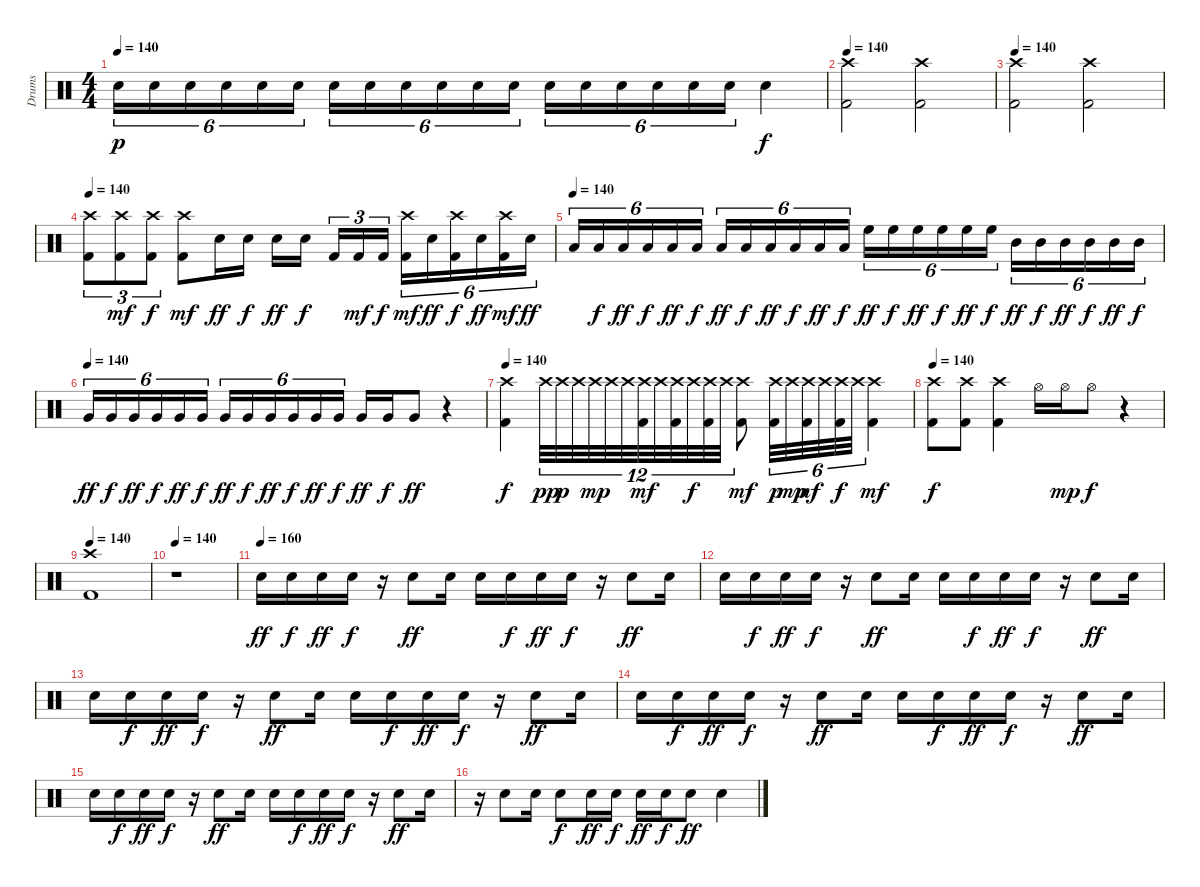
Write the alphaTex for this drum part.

\track ("Drums" "Drums") {instrument percussion}
\staff {score}
\articulation defaults
\ts (4 4)
\tempo 140
\clef neutral
\ks c "Snare (hit) 2".16{tu (6 4) dy p} "Snare (hit) 2".16{tu (6 4)} "Snare (hit) 2".16{tu (6 4)} "Snare (hit) 2".16{tu (6 4)} "Snare (hit) 2".16{tu (6 4)} "Snare (hit) 2".16{tu (6 4)} "Snare (hit) 2".16{tu (6 4)} "Snare (hit) 2".16{tu (6 4)} "Snare (hit) 2".16{tu (6 4)} "Snare (hit) 2".16{tu (6 4)} "Snare (hit) 2".16{tu (6 4)} "Snare (hit) 2".16{tu (6 4)} "Snare (hit) 2".16{tu (6 4)} "Snare (hit) 2".16{tu (6 4)} "Snare (hit) 2".16{tu (6 4)} "Snare (hit) 2".16{tu (6 4)} "Snare (hit) 2".16{tu (6 4)} "Snare (hit) 2".16{tu (6 4)} "Snare (hit) 2".4{dy f}
|
\tempo 140
("Crash high (hit)" "Kick (hit) 2").2 ("Crash high (hit)" "Kick (hit) 2").2 |
\tempo 140
("Crash high (hit)" "Kick (hit) 2").2 ("Crash high (hit)" "Kick (hit) 2").2 |
\tempo 140
("Crash high (hit)" "Kick (hit) 2").8{tu (3 2)} ("Crash high (hit)" "Kick (hit) 2").8{tu (3 2) dy mf} ("Crash high (hit)" "Kick (hit) 2").8{tu (3 2) dy f} ("Crash high (hit)" "Kick (hit) 2").8{dy mf} "Snare (hit) 2".16{dy ff} "Snare (hit) 2".16{dy f} "Snare (hit) 2".16{dy ff} "Snare (hit) 2".16{dy f} "Kick (hit) 2".16{tu (3 2)} "Kick (hit) 2".16{tu (3 2) dy mf} "Kick (hit) 2".16{tu (3 2) dy f} ("Crash high (hit)" "Kick (hit) 2").16{tu (6 4) dy mf} "Snare (hit) 2".16{tu (6 4) dy ff} ("Crash high (hit)" "Kick (hit) 2").16{tu (6 4) dy f} "Snare (hit) 2".16{tu (6 4) dy ff} ("Crash high (hit)" "Kick (hit) 2").16{tu (6 4) dy mf} "Snare (hit) 2".16{tu (6 4) dy ff} |
\tempo (140)
"Low Tom (hit)".16{tu (6 4)} "Low Tom (hit)".16{tu (6 4) dy f} "Low Tom (hit)".16{tu (6 4) dy ff} "Low Tom (hit)".16{tu (6 4) dy f} "Low Tom (hit)".16{tu (6 4) dy ff} "Low Tom (hit)".16{tu (6 4) dy f} "Low Tom (hit)".16{tu (6 4) dy ff} "Low Tom (hit)".16{tu (6 4) dy f} "Low Tom (hit)".16{tu (6 4) dy ff} "Low Tom (hit)".16{tu (6 4) dy f} "Low Tom (hit)".16{tu (6 4) dy ff} "Low Tom (hit)".16{tu (6 4) dy f} "High Floor Tom (hit)".16{tu (6 4) dy ff} "High Floor Tom (hit)".16{tu (6 4) dy f} "High Floor Tom (hit)".16{tu (6 4) dy ff} "High Floor Tom (hit)".16{tu (6 4) dy f} "High Floor Tom (hit)".16{tu (6 4) dy ff} "High Floor Tom (hit)".16{tu (6 4) dy f} "Mid Tom (hit)".16{tu (6 4) dy ff} "Mid Tom (hit)".16{tu (6 4) dy f} "Mid Tom (hit)".16{tu (6 4) dy ff} "Mid Tom (hit)".16{tu (6 4) dy f} "Mid Tom (hit)".16{tu (6 4) dy ff} "Mid Tom (hit)".16{tu (6 4) dy f} |
\tempo (140)
"Very Low Tom (hit)".16{tu (6 4) dy ff} "Very Low Tom (hit)".16{tu (6 4) dy f} "Very Low Tom (hit)".16{tu (6 4) dy ff} "Very Low Tom (hit)".16{tu (6 4) dy f} "Very Low Tom (hit)".16{tu (6 4) dy ff} "Very Low Tom (hit)".16{tu (6 4) dy f} "Very Low Tom (hit)".16{tu (6 4) dy ff} "Very Low Tom (hit)".16{tu (6 4) dy f} "Very Low Tom (hit)".16{tu (6 4) dy ff} "Very Low Tom (hit)".16{tu (6 4) dy f} "Very Low Tom (hit)".16{tu (6 4) dy ff} "Very Low Tom (hit)".16{tu (6 4) dy f} "Very Low Tom (hit)".16{dy ff} "Very Low Tom (hit)".16{dy f} "Very Low Tom (hit)".8{dy ff} r.4 |
\tempo 140
("Crash high (hit)" "Kick (hit) 2").4{dy f} "Crash high (hit)".32{tu (12 8) dy pp} "Crash high (hit)".32{tu (12 8) dy p} "Crash high (hit)".32{tu (12 8)} "Crash high (hit)".32{tu (12 8) dy mp} "Crash high (hit)".32{tu (12 8)} "Crash high (hit)".32{tu (12 8)} ("Crash high (hit)" "Kick (hit) 2").32{tu (12 8) dy mf} "Crash high (hit)".32{tu (12 8)} ("Crash high (hit)" "Kick (hit) 2").32{tu (12 8)} "Crash high (hit)".32{tu (12 8) dy f} ("Crash high (hit)" "Kick (hit) 2").32{tu (12 8)} "Crash high (hit)".32{tu (12 8)} ("Crash high (hit)" "Kick (hit) 2").8{dy mf} ("Crash high (hit)" "Kick (hit) 2").32{tu (6 4) dy p} "Crash high (hit)".32{tu (6 4) dy mp} ("Crash high (hit)" "Kick (hit) 2").32{tu (6 4) dy mf} "Crash high (hit)".32{tu (6 4)} ("Crash high (hit)" "Kick (hit) 2").32{tu (6 4) dy f} "Crash high (hit)".32{tu (6 4)} ("Crash high (hit)" "Kick (hit) 2").4{dy mf} |
\tempo 140
("Crash high (hit)" "Kick (hit) 2").8{dy f} ("Crash high (hit)" "Kick (hit) 2").8 ("Crash high (hit)" "Kick (hit) 2").4 "Hi-Hat (open)".16 "Hi-Hat (open)".16{dy mp} "Hi-Hat (open)".8{dy f} r.4 |
\tempo 140
("Crash high (hit)" "Kick (hit) 2").1 |
\tempo 140
r.1 |
\tempo (160)
"Snare (hit) 2".16{dy ff} "Snare (hit) 2".16{dy f} "Snare (hit) 2".16{dy ff} "Snare (hit) 2".16{dy f} r.16 "Snare (hit) 2".8{dy ff} "Snare (hit) 2".16 "Snare (hit) 2".16 "Snare (hit) 2".16{dy f} "Snare (hit) 2".16{dy ff} "Snare (hit) 2".16{dy f} r.16 "Snare (hit) 2".8{dy ff} "Snare (hit) 2".16 |
"Snare (hit) 2".16 "Snare (hit) 2".16{dy f} "Snare (hit) 2".16{dy ff} "Snare (hit) 2".16{dy f} r.16 "Snare (hit) 2".8{dy ff} "Snare (hit) 2".16 "Snare (hit) 2".16 "Snare (hit) 2".16{dy f} "Snare (hit) 2".16{dy ff} "Snare (hit) 2".16{dy f} r.16 "Snare (hit) 2".8{dy ff} "Snare (hit) 2".16 |
"Snare (hit) 2".16 "Snare (hit) 2".16{dy f} "Snare (hit) 2".16{dy ff} "Snare (hit) 2".16{dy f} r.16 "Snare (hit) 2".8{dy ff} "Snare (hit) 2".16 "Snare (hit) 2".16 "Snare (hit) 2".16{dy f} "Snare (hit) 2".16{dy ff} "Snare (hit) 2".16{dy f} r.16 "Snare (hit) 2".8{dy ff} "Snare (hit) 2".16 |
"Snare (hit) 2".16 "Snare (hit) 2".16{dy f} "Snare (hit) 2".16{dy ff} "Snare (hit) 2".16{dy f} r.16 "Snare (hit) 2".8{dy ff} "Snare (hit) 2".16 "Snare (hit) 2".16 "Snare (hit) 2".16{dy f} "Snare (hit) 2".16{dy ff} "Snare (hit) 2".16{dy f} r.16 "Snare (hit) 2".8{dy ff} "Snare (hit) 2".16 |
"Snare (hit) 2".16 "Snare (hit) 2".16{dy f} "Snare (hit) 2".16{dy ff} "Snare (hit) 2".16{dy f} r.16 "Snare (hit) 2".8{dy ff} "Snare (hit) 2".16 "Snare (hit) 2".16 "Snare (hit) 2".16{dy f} "Snare (hit) 2".16{dy ff} "Snare (hit) 2".16{dy f} r.16 "Snare (hit) 2".8{dy ff} "Snare (hit) 2".16 |
r.16 "Snare (hit) 2".8 "Snare (hit) 2".16 "Snare (hit) 2".8{dy f} "Snare (hit) 2".16{dy ff} "Snare (hit) 2".16{dy f} "Snare (hit) 2".16{dy ff} "Snare (hit) 2".16{dy f} "Snare (hit) 2".8{dy ff} "Snare (hit) 2".4
